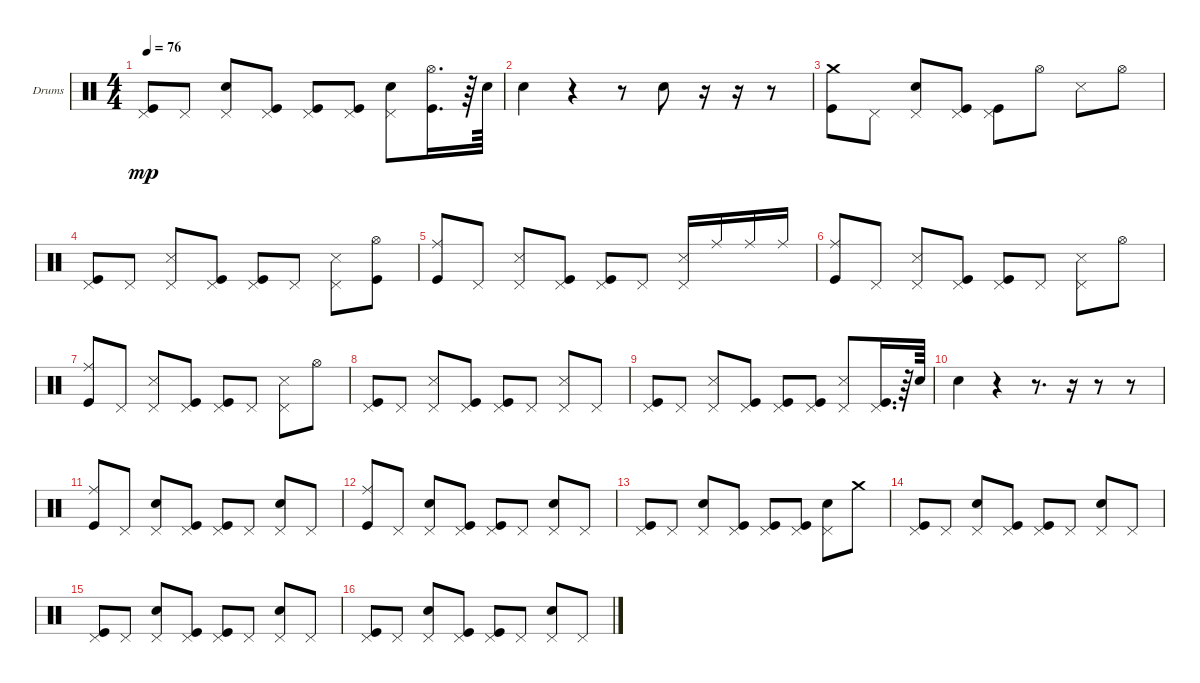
\bracketExtendMode groupsimilarinstruments
\firstSystemTrackNameOrientation horizontal
\otherSystemsTrackNameOrientation horizontal
\track ("Drumkit" "Drums") {instrument percussion}
\staff {score}
\articulation defaults
\ts (4 4)
\tempo 76
\clef neutral
\ks c
("Kick (hit)" "Pedal Hi-Hat (hit)").8{dy mp} "Pedal Hi-Hat (hit)".8 ("Pedal Hi-Hat (hit)" "Snare (hit) 2").8 ("Kick (hit)" "Pedal Hi-Hat (hit)").8 ("Pedal Hi-Hat (hit)" "Kick (hit)").8 ("Pedal Hi-Hat (hit)" "Kick (hit)").8 ("Pedal Hi-Hat (hit)" "Snare (hit) 2").8 ("Hi-Hat (open)" "Kick (hit)").16{d} r.64 "Snare (hit) 2".64 |
"Snare (hit) 2".4 r.4 r.8 "Snare (hit) 2".8 r.16 r.16 r.8 |
("Kick (hit)" "Crash medium (hit)").8 "Pedal Hi-Hat (hit)".8 ("Snare (hit) 2" "Pedal Hi-Hat (hit)").8 ("Kick (hit)" "Pedal Hi-Hat (hit)").8 ("Kick (hit)" "Pedal Hi-Hat (hit)").8 "Hi-Hat (open)".8 "Snare (side stick) 3".8 "Hi-Hat (open)".8 |
("Kick (hit)" "Pedal Hi-Hat (hit)").8 "Pedal Hi-Hat (hit)".8 ("Pedal Hi-Hat (hit)" "Snare (side stick) 3").8 ("Kick (hit)" "Pedal Hi-Hat (hit)").8 ("Kick (hit)" "Pedal Hi-Hat (hit)").8 "Pedal Hi-Hat (hit)".8 ("Pedal Hi-Hat (hit)" "Snare (side stick) 3").8 ("Kick (hit)" "Hi-Hat (open)").8 |
("Kick (hit)" "Ride (middle)").8 "Pedal Hi-Hat (hit)".8 ("Snare (side stick) 3" "Pedal Hi-Hat (hit)").8 ("Kick (hit)" "Pedal Hi-Hat (hit)").8 ("Kick (hit)" "Pedal Hi-Hat (hit)").8 "Pedal Hi-Hat (hit)".8 ("Snare (side stick) 3" "Pedal Hi-Hat (hit)").16 "Ride (middle)".16 "Ride (middle)".16 "Ride (middle)".16 |
("Kick (hit)" "Ride (middle)").8 "Pedal Hi-Hat (hit)".8 ("Pedal Hi-Hat (hit)" "Snare (side stick) 3").8 ("Pedal Hi-Hat (hit)" "Kick (hit)").8 ("Pedal Hi-Hat (hit)" "Kick (hit)").8 "Pedal Hi-Hat (hit)".8 ("Pedal Hi-Hat (hit)" "Snare (side stick) 3").8 "Hi-Hat (open)".8 |
("Ride (middle)" "Kick (hit)").8 "Pedal Hi-Hat (hit)".8 ("Pedal Hi-Hat (hit)" "Snare (side stick) 3").8 ("Pedal Hi-Hat (hit)" "Kick (hit)").8 ("Pedal Hi-Hat (hit)" "Kick (hit)").8 "Pedal Hi-Hat (hit)".8 ("Pedal Hi-Hat (hit)" "Snare (side stick) 3").8 "Hi-Hat (open)".8 |
("Kick (hit)" "Pedal Hi-Hat (hit)").8 "Pedal Hi-Hat (hit)".8 ("Pedal Hi-Hat (hit)" "Snare (side stick) 3").8 ("Pedal Hi-Hat (hit)" "Kick (hit)").8 ("Pedal Hi-Hat (hit)" "Kick (hit)").8 "Pedal Hi-Hat (hit)".8 ("Pedal Hi-Hat (hit)" "Snare (side stick) 3").8 "Pedal Hi-Hat (hit)".8 |
("Pedal Hi-Hat (hit)" "Kick (hit)").8 "Pedal Hi-Hat (hit)".8 ("Pedal Hi-Hat (hit)" "Snare (side stick) 3").8 ("Pedal Hi-Hat (hit)" "Kick (hit)").8 ("Pedal Hi-Hat (hit)" "Kick (hit)").8 ("Pedal Hi-Hat (hit)" "Kick (hit)").8 ("Pedal Hi-Hat (hit)" "Snare (side stick) 3").8 ("Pedal Hi-Hat (hit)" "Kick (hit)").16{d} r.64 "Snare (hit) 2".64 |
"Snare (hit) 2".4 r.4 r.8{d} r.16 r.8 r.8 |
("Ride (middle)" "Kick (hit)").8 "Pedal Hi-Hat (hit)".8 ("Pedal Hi-Hat (hit)" "Snare (hit) 2").8 ("Pedal Hi-Hat (hit)" "Kick (hit)").8 ("Pedal Hi-Hat (hit)" "Kick (hit)").8 "Pedal Hi-Hat (hit)".8 ("Pedal Hi-Hat (hit)" "Snare (hit) 2").8 "Pedal Hi-Hat (hit)".8 |
("Kick (hit)" "Ride (middle)").8 "Pedal Hi-Hat (hit)".8 ("Pedal Hi-Hat (hit)" "Snare (hit) 2").8 ("Pedal Hi-Hat (hit)" "Kick (hit)").8 ("Pedal Hi-Hat (hit)" "Kick (hit)").8 "Pedal Hi-Hat (hit)".8 ("Pedal Hi-Hat (hit)" "Snare (hit) 2").8 "Pedal Hi-Hat (hit)".8 |
("Kick (hit)" "Pedal Hi-Hat (hit)").8 "Pedal Hi-Hat (hit)".8 ("Pedal Hi-Hat (hit)" "Snare (hit) 2").8 ("Pedal Hi-Hat (hit)" "Kick (hit)").8 ("Pedal Hi-Hat (hit)" "Kick (hit)").8 ("Pedal Hi-Hat (hit)" "Kick (hit)").8 ("Pedal Hi-Hat (hit)" "Snare (hit) 2").8 "Crash medium (hit)".8 |
("Kick (hit)" "Pedal Hi-Hat (hit)").8 "Pedal Hi-Hat (hit)".8 ("Pedal Hi-Hat (hit)" "Snare (hit) 2").8 ("Pedal Hi-Hat (hit)" "Kick (hit)").8 ("Pedal Hi-Hat (hit)" "Kick (hit)").8 "Pedal Hi-Hat (hit)".8 ("Pedal Hi-Hat (hit)" "Snare (hit) 2").8 "Pedal Hi-Hat (hit)".8 |
("Pedal Hi-Hat (hit)" "Kick (hit)").8 "Pedal Hi-Hat (hit)".8 ("Pedal Hi-Hat (hit)" "Snare (hit) 2").8 ("Pedal Hi-Hat (hit)" "Kick (hit)").8 ("Pedal Hi-Hat (hit)" "Kick (hit)").8 "Pedal Hi-Hat (hit)".8 ("Pedal Hi-Hat (hit)" "Snare (hit) 2").8 "Pedal Hi-Hat (hit)".8 |
("Pedal Hi-Hat (hit)" "Kick (hit)").8 "Pedal Hi-Hat (hit)".8 ("Pedal Hi-Hat (hit)" "Snare (hit) 2").8 ("Pedal Hi-Hat (hit)" "Kick (hit)").8 ("Pedal Hi-Hat (hit)" "Kick (hit)").8 "Pedal Hi-Hat (hit)".8 ("Pedal Hi-Hat (hit)" "Snare (hit) 2").8 "Pedal Hi-Hat (hit)".8
